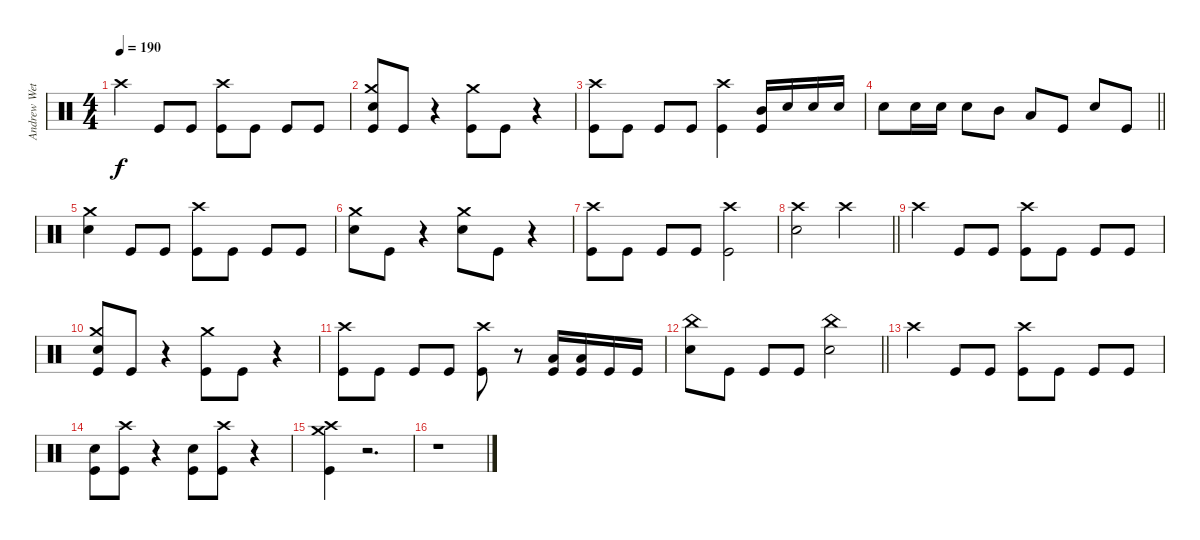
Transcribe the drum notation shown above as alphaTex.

\track ("Andrew Wetzel" "Andrew Wet") {instrument percussion}
\staff {score}
\articulation defaults
\ts (4 4)
\tempo 190
\clef neutral
\ks c "Crash high (hit)".4{dy f} "Kick (hit)".8 "Kick (hit)".8
("Crash high (hit)" "Kick (hit)").8 "Kick (hit)".8 "Kick (hit)".8 "Kick (hit)".8 |
("Crash medium (hit)" "Snare (hit) 2" "Kick (hit)").8 "Kick (hit)".8 r.4 ("Crash medium (hit)" "Kick (hit)").8 "Kick (hit)".8 r.4 |
("Crash high (hit)" "Kick (hit)").8 "Kick (hit)".8 "Kick (hit)".8 "Kick (hit)".8 ("Crash high (hit)" "Kick (hit)").4 ("Mid Tom (hit)" "Kick (hit)").16 "Snare (hit) 2".16 "Snare (hit) 2".16 "Snare (hit) 2".16 |
\barLineRight lightlight "Snare (hit) 2".8 "Snare (hit) 2".16 "Snare (hit) 2".16 "Snare (hit) 2".8 "Mid Tom (hit)".8 "Low Tom (hit)".8 "Kick (hit)".8 "Snare (hit) 2".8 "Kick (hit)".8
|
("Crash medium (hit)" "Snare (hit) 2").4 "Kick (hit)".8 "Kick (hit)".8 ("Crash high (hit)" "Kick (hit)").8 "Kick (hit)".8 "Kick (hit)".8 "Kick (hit)".8 |
("Crash medium (hit)" "Snare (hit) 2").8 "Kick (hit)".8 r.4 ("Crash medium (hit)" "Snare (hit) 2").8 "Kick (hit)".8 r.4 |
("Crash high (hit)" "Kick (hit)").8 "Kick (hit)".8 "Kick (hit)".8 "Kick (hit)".8 ("Crash high (hit)" "Kick (hit)").2 |
\barLineRight lightlight
("Crash high (hit)" "Snare (hit) 2").2 "Crash high (hit)".2 |
"Crash high (hit)".4 "Kick (hit)".8 "Kick (hit)".8 ("Crash high (hit)" "Kick (hit)").8 "Kick (hit)".8 "Kick (hit)".8 "Kick (hit)".8 |
("Crash medium (hit)" "Snare (hit) 2" "Kick (hit)").8 "Kick (hit)".8 r.4 ("Crash medium (hit)" "Kick (hit)").8 "Kick (hit)".8 r.4 |
("Crash high (hit)" "Kick (hit)").8 "Kick (hit)".8 "Kick (hit)".8 "Kick (hit)".8 ("Crash high (hit)" "Kick (hit)").8 r.8 ("Low Tom (hit)" "Kick (hit)").16 ("Low Tom (hit)" "Kick (hit)").16 "Kick (hit)".16 "Kick (hit)".16 |
\barLineRight lightlight
("China (hit)" "Snare (hit) 2").8 "Kick (hit)".8 "Kick (hit)".8 "Kick (hit)".8 ("China (hit)" "Snare (hit) 2").2 |
"Crash high (hit)".4 "Kick (hit)".8 "Kick (hit)".8 ("Crash high (hit)" "Kick (hit)").8 "Kick (hit)".8 "Kick (hit)".8 "Kick (hit)".8 |
("Snare (hit) 2" "Kick (hit)").8 ("Crash high (hit)" "Kick (hit)").8 r.4 ("Snare (hit) 2" "Kick (hit)").8 ("Crash high (hit)" "Kick (hit)").8 r.4 |
("Crash high (hit)" "Crash medium (hit)" "Kick (hit)").4 r.2{d volume 0} |
r.1
